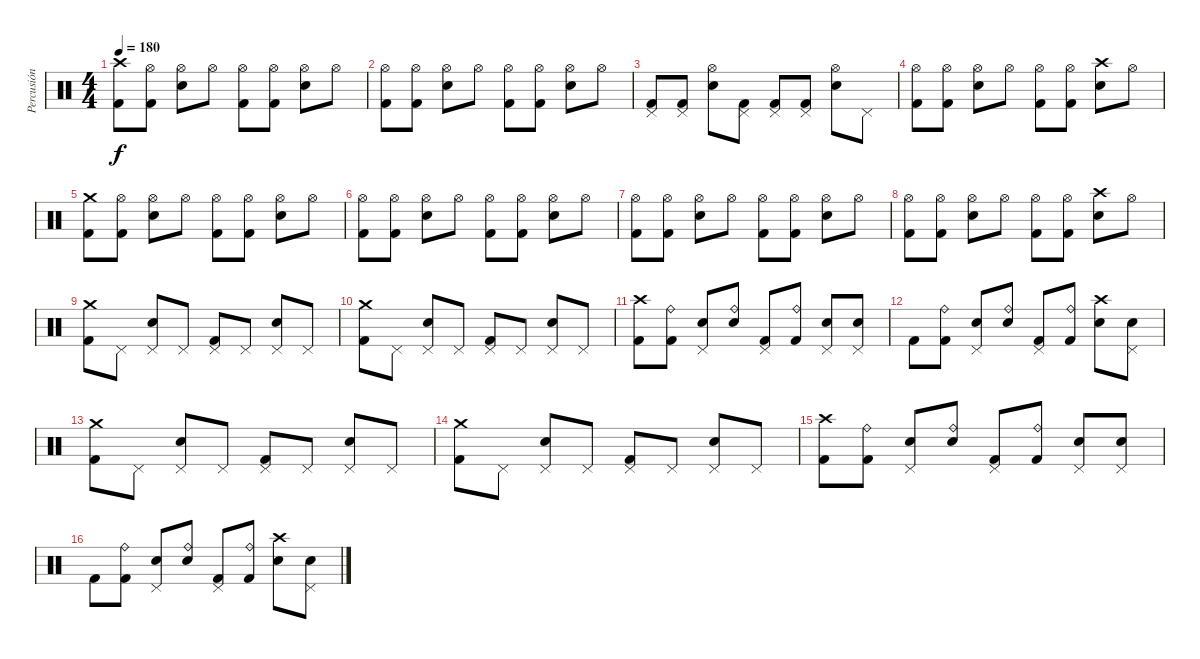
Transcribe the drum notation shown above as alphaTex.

\track ("Percusión" "Percusión") {instrument percussion}
\staff {score}
\articulation defaults
\ts (4 4)
\tempo 180
\clef neutral
\ks c
("Crash high (hit)" "Kick (hit) 2").8{dy f} ("Hi-Hat (open)" "Kick (hit) 2").8 ("Hi-Hat (open)" "Snare (hit) 2").8 "Hi-Hat (open)".8 ("Hi-Hat (open)" "Kick (hit) 2").8 ("Hi-Hat (open)" "Kick (hit) 2").8 ("Hi-Hat (open)" "Snare (hit) 2").8 "Hi-Hat (open)".8 |
("Hi-Hat (open)" "Kick (hit) 2").8 ("Hi-Hat (open)" "Kick (hit) 2").8 ("Hi-Hat (open)" "Snare (hit) 2").8 "Hi-Hat (open)".8 ("Hi-Hat (open)" "Kick (hit) 2").8 ("Hi-Hat (open)" "Kick (hit) 2").8 ("Hi-Hat (open)" "Snare (hit) 2").8 "Hi-Hat (open)".8 |
("Pedal Hi-Hat (hit)" "Kick (hit) 2").8 ("Pedal Hi-Hat (hit)" "Kick (hit) 2").8 ("Hi-Hat (open)" "Snare (hit) 2").8 ("Pedal Hi-Hat (hit)" "Kick (hit) 2").8 ("Pedal Hi-Hat (hit)" "Kick (hit) 2").8 ("Pedal Hi-Hat (hit)" "Kick (hit) 2").8 ("Hi-Hat (open)" "Snare (hit) 2").8 "Pedal Hi-Hat (hit)".8 |
("Hi-Hat (open)" "Kick (hit) 2").8 ("Hi-Hat (open)" "Kick (hit) 2").8 ("Hi-Hat (open)" "Snare (hit) 2").8 "Hi-Hat (open)".8 ("Hi-Hat (open)" "Kick (hit) 2").8 ("Hi-Hat (open)" "Kick (hit) 2").8 ("Crash high (hit)" "Snare (hit) 2").8 "Hi-Hat (open)".8 |
("Crash medium (hit)" "Kick (hit) 2").8 ("Hi-Hat (open)" "Kick (hit) 2").8 ("Hi-Hat (open)" "Snare (hit) 2").8 "Hi-Hat (open)".8 ("Hi-Hat (open)" "Kick (hit) 2").8 ("Hi-Hat (open)" "Kick (hit) 2").8 ("Hi-Hat (open)" "Snare (hit) 2").8 "Hi-Hat (open)".8 |
("Hi-Hat (open)" "Kick (hit) 2").8 ("Hi-Hat (open)" "Kick (hit) 2").8 ("Hi-Hat (open)" "Snare (hit) 2").8 "Hi-Hat (open)".8 ("Hi-Hat (open)" "Kick (hit) 2").8 ("Hi-Hat (open)" "Kick (hit) 2").8 ("Hi-Hat (open)" "Snare (hit) 2").8 "Hi-Hat (open)".8 |
("Hi-Hat (open)" "Kick (hit) 2").8 ("Hi-Hat (open)" "Kick (hit) 2").8 ("Hi-Hat (open)" "Snare (hit) 2").8 "Hi-Hat (open)".8 ("Hi-Hat (open)" "Kick (hit) 2").8 ("Hi-Hat (open)" "Kick (hit) 2").8 ("Hi-Hat (open)" "Snare (hit) 2").8 "Hi-Hat (open)".8 |
("Hi-Hat (open)" "Kick (hit) 2").8 ("Hi-Hat (open)" "Kick (hit) 2").8 ("Hi-Hat (open)" "Snare (hit) 2").8 "Hi-Hat (open)".8 ("Hi-Hat (open)" "Kick (hit) 2").8 ("Hi-Hat (open)" "Kick (hit) 2").8 ("Crash high (hit)" "Snare (hit) 2").8 "Hi-Hat (open)".8 |
("Crash medium (hit)" "Kick (hit) 2").8 "Pedal Hi-Hat (hit)".8 ("Pedal Hi-Hat (hit)" "Snare (hit) 2").8 "Pedal Hi-Hat (hit)".8 ("Pedal Hi-Hat (hit)" "Kick (hit) 2").8 "Pedal Hi-Hat (hit)".8 ("Pedal Hi-Hat (hit)" "Snare (hit) 2").8 "Pedal Hi-Hat (hit)".8 |
("Crash medium (hit)" "Kick (hit) 2").8 "Pedal Hi-Hat (hit)".8 ("Pedal Hi-Hat (hit)" "Snare (hit) 2").8 "Pedal Hi-Hat (hit)".8 ("Pedal Hi-Hat (hit)" "Kick (hit) 2").8 "Pedal Hi-Hat (hit)".8 ("Pedal Hi-Hat (hit)" "Snare (hit) 2").8 "Pedal Hi-Hat (hit)".8 |
("Crash high (hit)" "Kick (hit) 2").8 ("Ride (bell)" "Kick (hit) 2").8 ("Pedal Hi-Hat (hit)" "Snare (hit) 2").8 ("Ride (bell)" "Snare (hit) 2").8 ("Pedal Hi-Hat (hit)" "Kick (hit) 2").8 ("Ride (bell)" "Kick (hit) 2").8 ("Pedal Hi-Hat (hit)" "Snare (hit) 2").8 ("Pedal Hi-Hat (hit)" "Snare (hit) 2").8 |
"Kick (hit) 2".8 ("Ride (bell)" "Kick (hit) 2").8 ("Pedal Hi-Hat (hit)" "Snare (hit) 2").8 ("Ride (bell)" "Snare (hit) 2").8 ("Pedal Hi-Hat (hit)" "Kick (hit) 2").8 ("Ride (bell)" "Kick (hit) 2").8 ("Crash high (hit)" "Snare (hit) 2").8 ("Pedal Hi-Hat (hit)" "Snare (hit) 2").8 |
("Crash medium (hit)" "Kick (hit) 2").8 "Pedal Hi-Hat (hit)".8 ("Pedal Hi-Hat (hit)" "Snare (hit) 2").8 "Pedal Hi-Hat (hit)".8 ("Pedal Hi-Hat (hit)" "Kick (hit) 2").8 "Pedal Hi-Hat (hit)".8 ("Pedal Hi-Hat (hit)" "Snare (hit) 2").8 "Pedal Hi-Hat (hit)".8 |
("Crash medium (hit)" "Kick (hit) 2").8 "Pedal Hi-Hat (hit)".8 ("Pedal Hi-Hat (hit)" "Snare (hit) 2").8 "Pedal Hi-Hat (hit)".8 ("Pedal Hi-Hat (hit)" "Kick (hit) 2").8 "Pedal Hi-Hat (hit)".8 ("Pedal Hi-Hat (hit)" "Snare (hit) 2").8 "Pedal Hi-Hat (hit)".8 |
("Crash high (hit)" "Kick (hit) 2").8 ("Ride (bell)" "Kick (hit) 2").8 ("Pedal Hi-Hat (hit)" "Snare (hit) 2").8 ("Ride (bell)" "Snare (hit) 2").8 ("Pedal Hi-Hat (hit)" "Kick (hit) 2").8 ("Ride (bell)" "Kick (hit) 2").8 ("Pedal Hi-Hat (hit)" "Snare (hit) 2").8 ("Pedal Hi-Hat (hit)" "Snare (hit) 2").8 |
"Kick (hit) 2".8 ("Ride (bell)" "Kick (hit) 2").8 ("Pedal Hi-Hat (hit)" "Snare (hit) 2").8 ("Ride (bell)" "Snare (hit) 2").8 ("Pedal Hi-Hat (hit)" "Kick (hit) 2").8 ("Ride (bell)" "Kick (hit) 2").8 ("Crash high (hit)" "Snare (hit) 2").8 ("Pedal Hi-Hat (hit)" "Snare (hit) 2").8
